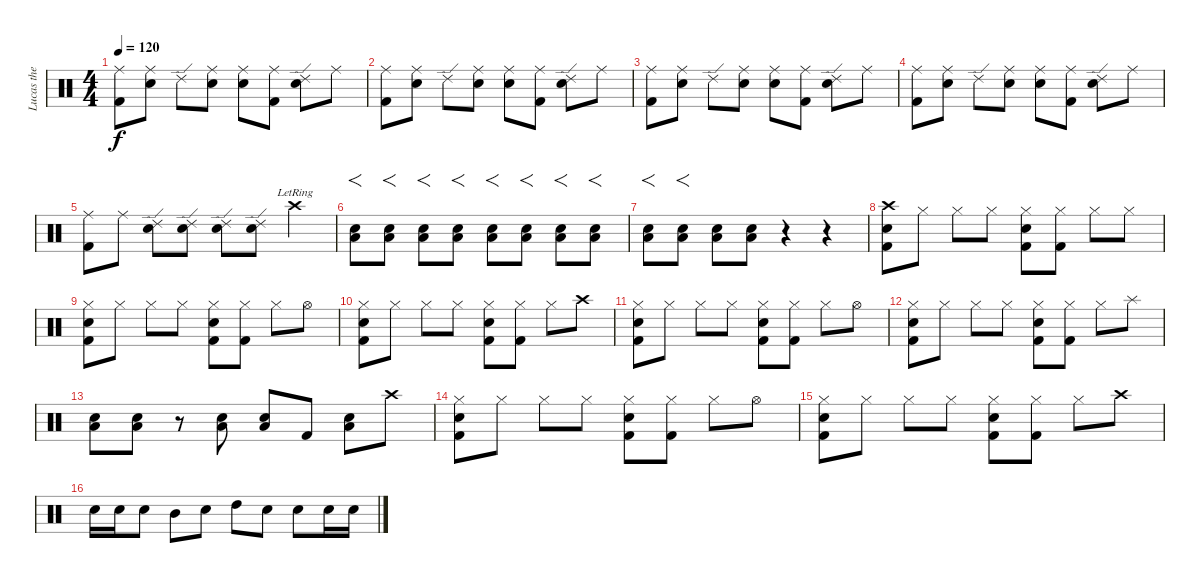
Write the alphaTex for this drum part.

\track ("Lucas the MAN" "Lucas the ") {instrument percussion}
\staff {score}
\articulation defaults
\ts (4 4)
\tempo 120
\clef neutral
\ks c
("Ride (middle)" "Kick (hit) 2").8{dy f} ("Ride (middle)" "Electric Snare (hit)").8 "Ride (edge) 2".8 ("Ride (middle)" "Electric Snare (hit)").8 ("Ride (middle)" "Electric Snare (hit)").8 ("Ride (middle)" "Kick (hit) 2").8 ("Ride (edge) 2" "Electric Snare (hit)").8 "Ride (middle)".8 |
("Ride (middle)" "Kick (hit) 2").8 ("Ride (middle)" "Electric Snare (hit)").8 "Ride (edge) 2".8 ("Ride (middle)" "Electric Snare (hit)").8 ("Ride (middle)" "Electric Snare (hit)").8 ("Ride (middle)" "Kick (hit) 2").8 ("Ride (edge) 2" "Electric Snare (hit)").8 "Ride (middle)".8 |
("Ride (middle)" "Kick (hit) 2").8 ("Ride (middle)" "Electric Snare (hit)").8 "Ride (edge) 2".8 ("Ride (middle)" "Electric Snare (hit)").8 ("Ride (middle)" "Electric Snare (hit)").8 ("Ride (middle)" "Kick (hit) 2").8 ("Ride (edge) 2" "Electric Snare (hit)").8 "Ride (middle)".8 |
("Ride (middle)" "Kick (hit) 2").8 ("Ride (middle)" "Electric Snare (hit)").8 "Ride (edge) 2".8 ("Ride (middle)" "Electric Snare (hit)").8 ("Ride (middle)" "Electric Snare (hit)").8 ("Ride (middle)" "Kick (hit) 2").8 ("Ride (edge) 2" "Electric Snare (hit)").8 "Ride (middle)".8 |
("Ride (middle)" "Kick (hit) 2").8 "Ride (middle)".8 ("Ride (edge) 2" "Electric Snare (hit)").8 ("Ride (edge) 2" "Electric Snare (hit)").8 ("Ride (edge) 2" "Electric Snare (hit)").8 ("Ride (edge) 2" "Electric Snare (hit)").8 "Crash high (hit)"{lr}.4 |
("Electric Snare (hit)" "Low Floor Tom (hit)").8{f} ("Electric Snare (hit)" "Low Floor Tom (hit)").8{f} ("Electric Snare (hit)" "Low Floor Tom (hit)").8{f} ("Electric Snare (hit)" "Low Floor Tom (hit)").8{f} ("Electric Snare (hit)" "Low Floor Tom (hit)").8{f} ("Electric Snare (hit)" "Low Floor Tom (hit)").8{f} ("Electric Snare (hit)" "Low Floor Tom (hit)").8{f} ("Electric Snare (hit)" "Low Floor Tom (hit)").8{f} |
("Electric Snare (hit)" "Low Floor Tom (hit)").8{f} ("Electric Snare (hit)" "Low Floor Tom (hit)").8{f} ("Electric Snare (hit)" "Low Floor Tom (hit)").8 ("Electric Snare (hit)" "Low Floor Tom (hit)").8 r.4 r.4 |
("Crash high (hit)" "Electric Snare (hit)" "Kick (hit) 2").8 "Hi-Hat (closed)".8 "Hi-Hat (closed)".8 "Hi-Hat (closed)".8 ("Electric Snare (hit)" "Hi-Hat (closed)" "Kick (hit) 2").8 ("Hi-Hat (closed)" "Kick (hit) 2").8 "Hi-Hat (closed)".8 "Hi-Hat (closed)".8 |
("Electric Snare (hit)" "Hi-Hat (closed)" "Kick (hit) 2").8 "Hi-Hat (closed)".8 "Hi-Hat (closed)".8 "Hi-Hat (closed)".8 ("Electric Snare (hit)" "Hi-Hat (closed)" "Kick (hit) 2").8 ("Hi-Hat (closed)" "Kick (hit) 2").8 "Hi-Hat (closed)".8 "Hi-Hat (open)".8 |
("Electric Snare (hit)" "Hi-Hat (closed)" "Kick (hit) 2").8 "Hi-Hat (closed)".8 "Hi-Hat (closed)".8 "Hi-Hat (closed)".8 ("Electric Snare (hit)" "Hi-Hat (closed)" "Kick (hit) 2").8 ("Hi-Hat (closed)" "Kick (hit) 2").8 "Hi-Hat (closed)".8 "Crash high (hit)".8 |
("Electric Snare (hit)" "Hi-Hat (closed)" "Kick (hit) 2").8 "Hi-Hat (closed)".8 "Hi-Hat (closed)".8 "Hi-Hat (closed)".8 ("Electric Snare (hit)" "Hi-Hat (closed)" "Kick (hit) 2").8 ("Hi-Hat (closed)" "Kick (hit) 2").8 "Hi-Hat (closed)".8 "Hi-Hat (open)".8 |
("Electric Snare (hit)" "Hi-Hat (closed)" "Kick (hit) 2").8 "Hi-Hat (closed)".8 "Hi-Hat (closed)".8 "Hi-Hat (closed)".8 ("Electric Snare (hit)" "Hi-Hat (closed)" "Kick (hit) 2").8 ("Hi-Hat (closed)" "Kick (hit) 2").8 "Hi-Hat (closed)".8 "Splash (hit)".8 |
("Electric Snare (hit)" "Low Floor Tom (hit)").8 ("Electric Snare (hit)" "Low Floor Tom (hit)").8 r.8 ("Electric Snare (hit)" "Low Floor Tom (hit)").8 ("Electric Snare (hit)" "Low Floor Tom (hit)").8 "Kick (hit) 2".8 ("Electric Snare (hit)" "Low Floor Tom (hit)").8 "Crash high (hit)".8 |
("Electric Snare (hit)" "Hi-Hat (closed)" "Kick (hit) 2").8 "Hi-Hat (closed)".8 "Hi-Hat (closed)".8 "Hi-Hat (closed)".8 ("Electric Snare (hit)" "Hi-Hat (closed)" "Kick (hit) 2").8 ("Hi-Hat (closed)" "Kick (hit) 2").8 "Hi-Hat (closed)".8 "Hi-Hat (open)".8 |
("Electric Snare (hit)" "Hi-Hat (closed)" "Kick (hit) 2").8 "Hi-Hat (closed)".8 "Hi-Hat (closed)".8 "Hi-Hat (closed)".8 ("Electric Snare (hit)" "Hi-Hat (closed)" "Kick (hit) 2").8 ("Hi-Hat (closed)" "Kick (hit) 2").8 "Hi-Hat (closed)".8 "Crash high (hit)".8 |
"Electric Snare (hit)".16 "Electric Snare (hit)".16 "Electric Snare (hit)".8 "Mid Tom (hit)".8 "Electric Snare (hit)".8 "High Tom (hit)".8 "Electric Snare (hit)".8 "Electric Snare (hit)".8 "Electric Snare (hit)".16 "Electric Snare (hit)".16
